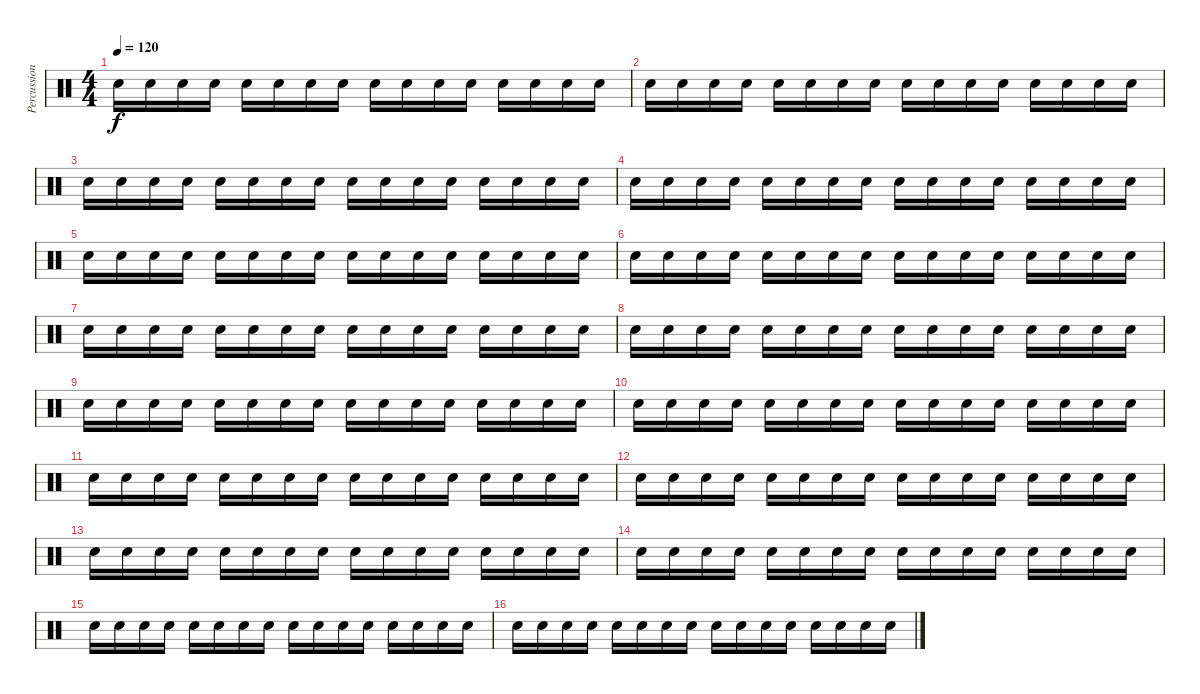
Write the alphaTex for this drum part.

\track ("Percussions" "Percussion") {instrument percussion}
\staff {score}
\articulation defaults
\ts (4 4)
\tempo 120
\clef neutral
\ks c "Electric Snare (hit)".16{dy f} "Snare (hit)"{x}.16 "Electric Snare (hit)".16 "Snare (hit)"{x}.16 "Electric Snare (hit)".16 "Snare (hit)"{x}.16 "Electric Snare (hit)".16 "Electric Snare (hit)"{x}.16 "Electric Snare (hit)".16 "Snare (hit)"{x}.16 "Electric Snare (hit)"{x}.16 "Snare (hit)"{x}.16 "Electric Snare (hit)".16 "Electric Snare (hit)"{x}.16 "Electric Snare (hit)"{x}.16 "Snare (hit)"{x}.16
|
"Snare (hit)"{x}.16 "Snare (hit)"{x}.16 "Snare (hit)"{x}.16 "Snare (hit)"{x}.16 "Snare (hit) 2".16 "Snare (hit)"{x}.16 "Snare (hit) 2".16 "Snare (hit)"{x}.16 "Snare (hit) 2".16 "Snare (hit)"{x}.16 "Snare (hit) 2".16 "Snare (hit)"{x}.16 "Snare (hit)"{x}.16 "Snare (hit)"{x}.16 "Snare (hit)"{x}.16 "Snare (hit)"{x}.16 |
"Electric Snare (hit)".16 "Electric Snare (hit)".16 "Snare (hit)"{x}.16 "Snare (hit)"{x}.16 "Electric Snare (hit)".16 "Electric Snare (hit)".16 "Snare (hit) 2".16 "Snare (hit)"{x}.16 "Snare (hit)"{x}.16 "Electric Snare (hit)".16 "Electric Snare (hit)".16 "Snare (hit)"{x}.16 "Electric Snare (hit)".16 "Electric Snare (hit)".16 "Snare (hit) 2".16 "Electric Snare (hit)".16 |
"Snare (hit)"{x}.16 "Snare (hit)"{x}.16 "Snare (hit)"{x}.16 "Snare (hit)"{x}.16 "Electric Snare (hit)".16 "Electric Snare (hit)".16 "Electric Snare (hit)".16 "Electric Snare (hit)".16 "Snare (hit) 2".16 "Snare (hit) 2".16 "Snare (hit) 2".16 "Snare (hit) 2".16 "Electric Snare (hit)".16 "Electric Snare (hit)".16 "Snare (hit)"{x}.16 "Snare (hit)"{x}.16 |
"Snare (hit)"{x}.16 "Snare (hit)"{x}.16 "Electric Snare (hit)".16 "Electric Snare (hit)".16 "Snare (hit) 2".16 "Snare (hit) 2".16 "Electric Snare (hit)".16 "Electric Snare (hit)".16 "Snare (hit)"{x}.16 "Electric Snare (hit)".16 "Snare (hit)"{x}.16 "Snare (hit) 2".16 "Snare (hit)"{x}.16 "Electric Snare (hit)".16 "Snare (hit)"{x}.16 "Snare (hit) 2".16 |
"Snare (hit)"{x}.16 "Electric Snare (hit)".16 "Snare (hit)"{x}.16 "Snare (hit) 2".16 "Electric Snare (hit)"{x}.16 "Electric Snare (hit)".16 "Snare (hit) 2"{x}.16 "Snare (hit) 2".16 "Snare (hit)"{x}.16 "Electric Snare (hit)".16 "Snare (hit)"{x}.16 "Snare (hit) 2".16 "Snare (hit)"{x}.16 "Electric Snare (hit)".16 "Snare (hit)"{x}.16 "Snare (hit) 2".16 |
"Snare (hit)"{x}.16 "Electric Snare (hit)".16 "Snare (hit)"{x}.16 "Snare (hit) 2".16 "Electric Snare (hit)"{x}.16 "Electric Snare (hit)".16 "Snare (hit) 2"{x}.16 "Snare (hit) 2".16 "Snare (hit)"{x}.16 "Electric Snare (hit)".16 "Snare (hit)"{x}.16 "Snare (hit) 2".16 "Snare (hit)"{x}.16 "Electric Snare (hit)".16 "Snare (hit)"{x}.16 "Snare (hit) 2".16 |
"Snare (hit)"{x}.16 "Snare (hit)"{x}.16 "Electric Snare (hit)".16 "Electric Snare (hit)".16 "Electric Snare (hit)".16 "Electric Snare (hit)".16 "Snare (hit) 2".16 "Snare (hit) 2".16 "Snare (hit) 2".16 "Snare (hit) 2".16 "Electric Snare (hit)".16 "Electric Snare (hit)".16 "Electric Snare (hit)".16 "Electric Snare (hit)".16 "Snare (hit) 2".16 "Snare (hit) 2".16 |
"Snare (hit) 2".16 "Snare (hit) 2".16 "Electric Snare (hit)".16 "Electric Snare (hit)".16 "Electric Snare (hit)".16 "Electric Snare (hit)".16 "Snare (hit) 2".16 "Snare (hit) 2".16 "Snare (hit) 2".16 "Snare (hit) 2".16 "Electric Snare (hit)".16 "Electric Snare (hit)".16 "Electric Snare (hit)".16 "Electric Snare (hit)".16 "Snare (hit) 2".16 "Snare (hit) 2".16 |
"Snare (hit)"{x}.16 "Snare (hit)"{x}.16 "Snare (hit)"{x}.16 "Snare (hit)"{x}.16 "Electric Snare (hit)".16 "Electric Snare (hit)".16 "Electric Snare (hit)".16 "Electric Snare (hit)".16 "Snare (hit)"{x}.16 "Snare (hit)"{x}.16 "Snare (hit)"{x}.16 "Snare (hit)"{x}.16 "Snare (hit) 2".16 "Snare (hit) 2".16 "Snare (hit) 2".16 "Snare (hit) 2".16 |
"Snare (hit)"{x}.16 "Snare (hit)"{x}.16 "Snare (hit)"{x}.16 "Snare (hit)"{x}.16 "Electric Snare (hit)".16 "Electric Snare (hit)".16 "Electric Snare (hit)".16 "Electric Snare (hit)".16 "Snare (hit)"{x}.16 "Snare (hit)"{x}.16 "Snare (hit)"{x}.16 "Snare (hit)"{x}.16 "Snare (hit) 2".16 "Snare (hit) 2".16 "Snare (hit) 2".16 "Snare (hit) 2".16 |
"Snare (hit)"{x}.16 "Snare (hit)"{x}.16 "Snare (hit)"{x}.16 "Snare (hit)"{x}.16 "Electric Snare (hit)".16 "Electric Snare (hit)".16 "Electric Snare (hit)".16 "Electric Snare (hit)".16 "Snare (hit)"{x}.16 "Snare (hit) 2".16 "Snare (hit)"{x}.16 "Electric Snare (hit)".16 "Snare (hit)"{x}.16 "Electric Snare (hit)".16 "Snare (hit) 2".16 "Snare (hit)"{x}.16 |
"Electric Snare (hit)".16 "Snare (hit)"{x}.16 "Snare (hit) 2".16 "Snare (hit)"{x}.16 "Electric Snare (hit)".16 "Snare (hit) 2".16 "Snare (hit)"{x}.16 "Electric Snare (hit)".16 "Snare (hit)"{x}.16 "Snare (hit) 2".16 "Snare (hit)"{x}.16 "Electric Snare (hit)".16 "Snare (hit) 2".16 "Snare (hit)"{x}.16 "Snare (hit) 2".16 "Electric Snare (hit)".16 |
"Snare (hit)"{x}.16 "Electric Snare (hit)".16 "Snare (hit) 2".16 "Snare (hit) 2"{x}.16 "Electric Snare (hit)".16 "Electric Snare (hit)".16 "Snare (hit) 2".16 "Snare (hit) 2".16 "Electric Snare (hit)".16 "Electric Snare (hit)".16 "Snare (hit) 2".16 "Snare (hit) 2".16 "Snare (hit)"{x}.16 "Snare (hit)"{x}.16 "Snare (hit)"{x}.16 "Snare (hit)"{x}.16 |
"Electric Snare (hit)".16 "Snare (hit)"{x}.16 "Electric Snare (hit)".16 "Snare (hit)"{x}.16 "Electric Snare (hit)".16 "Snare (hit)"{x}.16 "Electric Snare (hit)".16 "Electric Snare (hit)"{x}.16 "Electric Snare (hit)".16 "Snare (hit)"{x}.16 "Electric Snare (hit)"{x}.16 "Snare (hit)"{x}.16 "Electric Snare (hit)".16 "Electric Snare (hit)"{x}.16 "Electric Snare (hit)"{x}.16 "Snare (hit)"{x}.16 |
"Snare (hit)"{x}.16 "Snare (hit)"{x}.16 "Snare (hit)"{x}.16 "Snare (hit)"{x}.16 "Snare (hit) 2".16 "Snare (hit)"{x}.16 "Snare (hit) 2".16 "Snare (hit)"{x}.16 "Snare (hit) 2".16 "Snare (hit)"{x}.16 "Snare (hit) 2".16 "Snare (hit)"{x}.16 "Snare (hit)"{x}.16 "Snare (hit)"{x}.16 "Snare (hit)"{x}.16 "Snare (hit)"{x}.16
